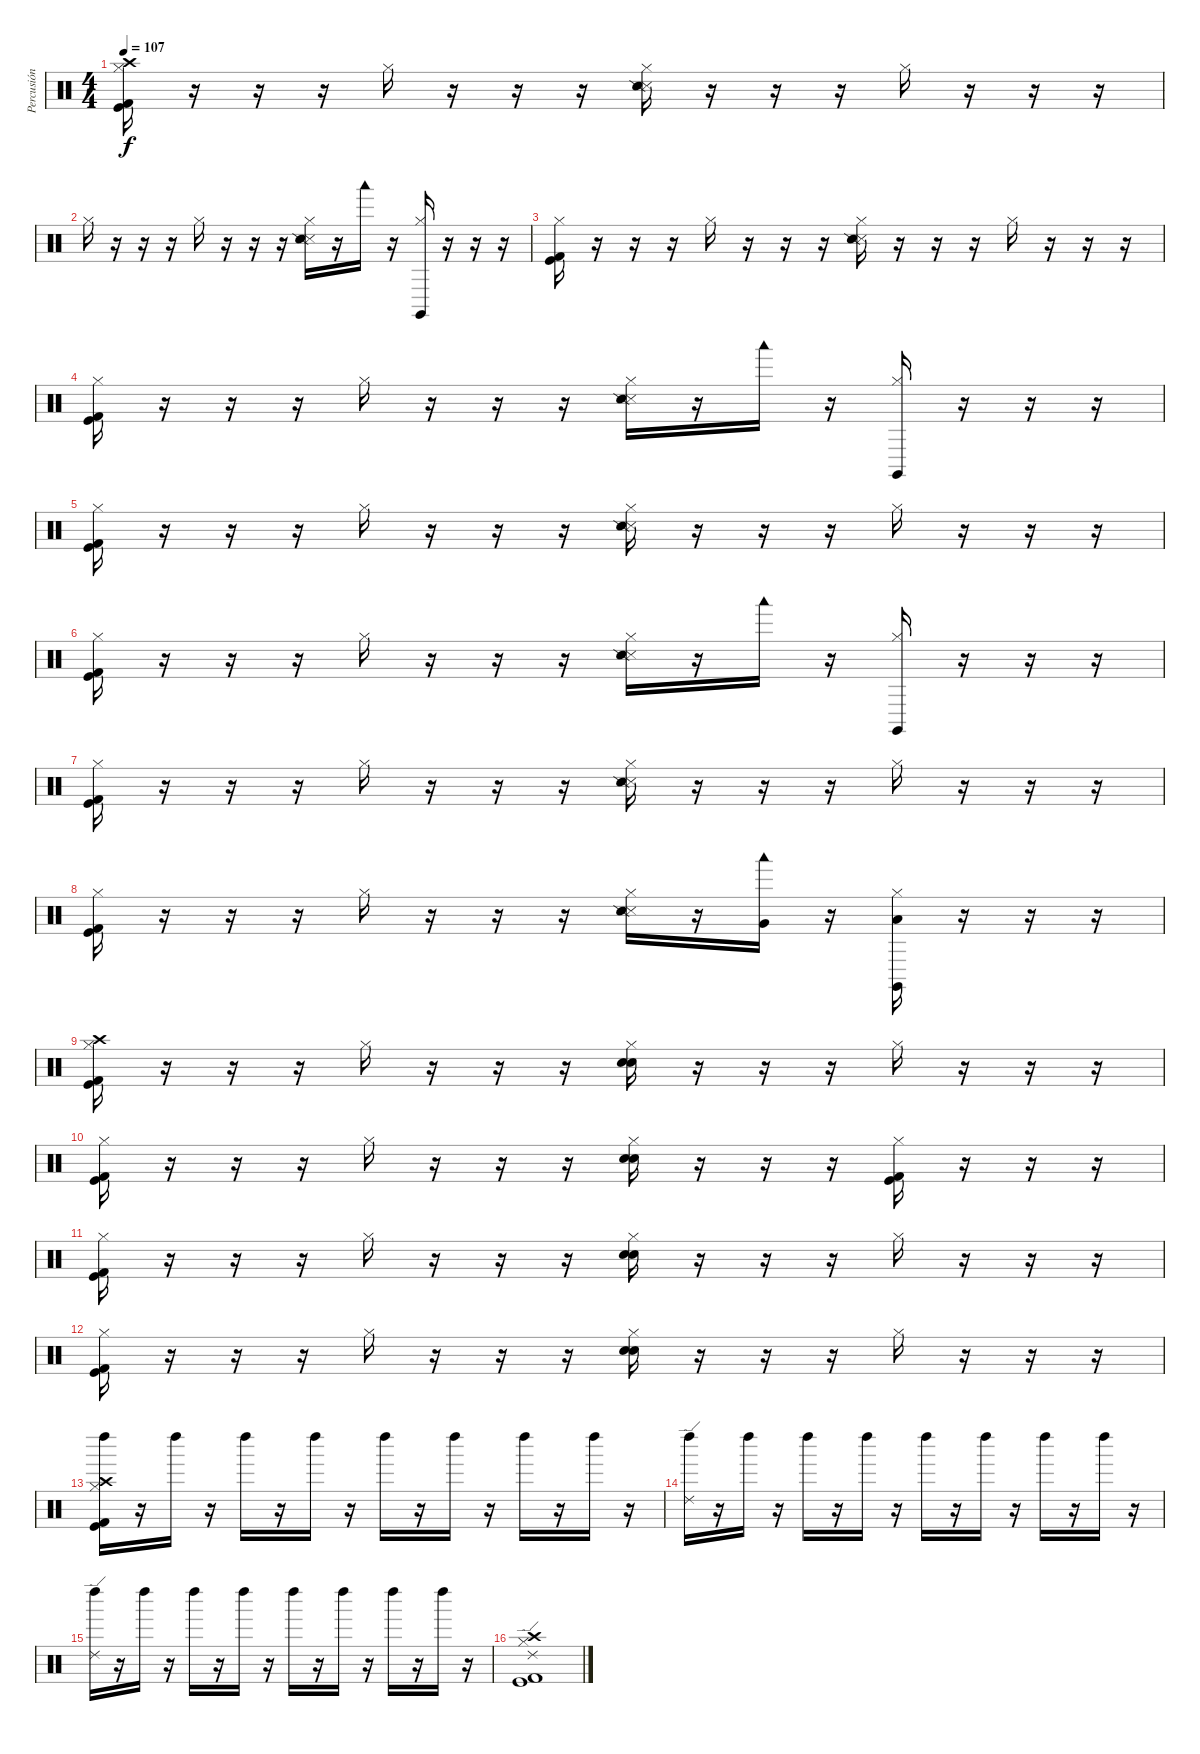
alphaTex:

\track ("Percusión" "Percusión") {instrument percussion}
\staff {score}
\articulation defaults
\ts (4 4)
\tempo 107
\clef neutral
\ks c
("Hi-Hat (closed)" "Crash high (hit)" "Kick (hit) 2" "Kick (hit)").16{dy f} r.16 r.16 r.16 "Hi-Hat (closed)".16 r.16 r.16 r.16 ("Hi-Hat (closed)" "Snare (side stick) 3" "Snare (side stick) 2").16 r.16 r.16 r.16 "Hi-Hat (closed)".16 r.16 r.16 r.16 |
"Hi-Hat (closed)".16 r.16 r.16 r.16 "Hi-Hat (closed)".16 r.16 r.16 r.16 ("Hi-Hat (closed)" "Snare (side stick) 3" "Snare (side stick) 2").16 r.16 "Woodblock low (hit)".16 r.16 ("Hi-Hat (closed)" "Claves (hit)").16 r.16 r.16 r.16 |
("Hi-Hat (closed)" "Kick (hit) 2" "Kick (hit)").16 r.16 r.16 r.16 "Hi-Hat (closed)".16 r.16 r.16 r.16 ("Hi-Hat (closed)" "Snare (side stick) 3" "Snare (side stick) 2").16 r.16 r.16 r.16 "Hi-Hat (closed)".16 r.16 r.16 r.16 |
("Hi-Hat (closed)" "Kick (hit) 2" "Kick (hit)").16 r.16 r.16 r.16 "Hi-Hat (closed)".16 r.16 r.16 r.16 ("Hi-Hat (closed)" "Snare (side stick) 3" "Snare (side stick) 2").16 r.16 "Woodblock low (hit)".16 r.16 ("Hi-Hat (closed)" "Claves (hit)").16 r.16 r.16 r.16 |
("Hi-Hat (closed)" "Kick (hit) 2" "Kick (hit)").16 r.16 r.16 r.16 "Hi-Hat (closed)".16 r.16 r.16 r.16 ("Hi-Hat (closed)" "Snare (side stick) 3" "Snare (side stick) 2").16 r.16 r.16 r.16 "Hi-Hat (closed)".16 r.16 r.16 r.16 |
("Hi-Hat (closed)" "Kick (hit) 2" "Kick (hit)").16 r.16 r.16 r.16 "Hi-Hat (closed)".16 r.16 r.16 r.16 ("Hi-Hat (closed)" "Snare (side stick) 3" "Snare (side stick) 2").16 r.16 "Woodblock low (hit)".16 r.16 ("Hi-Hat (closed)" "Claves (hit)").16 r.16 r.16 r.16 |
("Hi-Hat (closed)" "Kick (hit) 2" "Kick (hit)").16 r.16 r.16 r.16 "Hi-Hat (closed)".16 r.16 r.16 r.16 ("Hi-Hat (closed)" "Snare (side stick) 3" "Snare (side stick) 2").16 r.16 r.16 r.16 "Hi-Hat (closed)".16 r.16 r.16 r.16 |
("Hi-Hat (closed)" "Kick (hit) 2" "Kick (hit)").16 r.16 r.16 r.16 "Hi-Hat (closed)".16 r.16 r.16 r.16 ("Hi-Hat (closed)" "Snare (side stick) 3" "Snare (side stick) 2").16 r.16 ("Woodblock low (hit)" "Very Low Tom (hit)").16 r.16 ("Hi-Hat (closed)" "Claves (hit)" "Low Floor Tom (hit)").16 r.16 r.16 r.16 |
("Hi-Hat (closed)" "Crash high (hit)" "Kick (hit) 2" "Kick (hit)").16 r.16 r.16 r.16 "Hi-Hat (closed)".16 r.16 r.16 r.16 ("Hi-Hat (closed)" "Snare (hit) 2" "Electric Snare (hit)").16 r.16 r.16 r.16 "Hi-Hat (closed)".16 r.16 r.16 r.16 |
("Hi-Hat (closed)" "Kick (hit) 2" "Kick (hit)").16 r.16 r.16 r.16 "Hi-Hat (closed)".16 r.16 r.16 r.16 ("Hi-Hat (closed)" "Snare (hit) 2" "Electric Snare (hit)").16 r.16 r.16 r.16 ("Hi-Hat (closed)" "Kick (hit) 2" "Kick (hit)").16 r.16 r.16 r.16 |
("Hi-Hat (closed)" "Kick (hit) 2" "Kick (hit)").16 r.16 r.16 r.16 "Hi-Hat (closed)".16 r.16 r.16 r.16 ("Hi-Hat (closed)" "Snare (hit) 2" "Electric Snare (hit)").16 r.16 r.16 r.16 "Hi-Hat (closed)".16 r.16 r.16 r.16 |
("Hi-Hat (closed)" "Kick (hit) 2" "Kick (hit)").16 r.16 r.16 r.16 "Hi-Hat (closed)".16 r.16 r.16 r.16 ("Hi-Hat (closed)" "Snare (hit) 2" "Electric Snare (hit)").16 r.16 r.16 r.16 "Hi-Hat (closed)".16 r.16 r.16 r.16 |
("Hi-Hat (closed)" "Crash high (hit)" "Left Maraca (hit)" "Kick (hit)" "Kick (hit) 2").16 r.16 "Left Maraca (hit)".16 r.16 "Left Maraca (hit)".16 r.16 "Left Maraca (hit)".16 r.16 "Left Maraca (hit)".16 r.16 "Left Maraca (hit)".16 r.16 "Left Maraca (hit)".16 r.16 "Left Maraca (hit)".16 r.16 |
("Ride (edge) 2" "Left Maraca (hit)").16 r.16 "Left Maraca (hit)".16 r.16 "Left Maraca (hit)".16 r.16 "Left Maraca (hit)".16 r.16 "Left Maraca (hit)".16 r.16 "Left Maraca (hit)".16 r.16 "Left Maraca (hit)".16 r.16 "Left Maraca (hit)".16 r.16 |
("Ride (edge) 2" "Left Maraca (hit)").16 r.16 "Left Maraca (hit)".16 r.16 "Left Maraca (hit)".16 r.16 "Left Maraca (hit)".16 r.16 "Left Maraca (hit)".16 r.16 "Left Maraca (hit)".16 r.16 "Left Maraca (hit)".16 r.16 "Left Maraca (hit)".16 r.16 |
("Crash high (hit)" "Ride (edge) 2" "Hi-Hat (closed)" "Kick (hit)" "Kick (hit) 2").1
